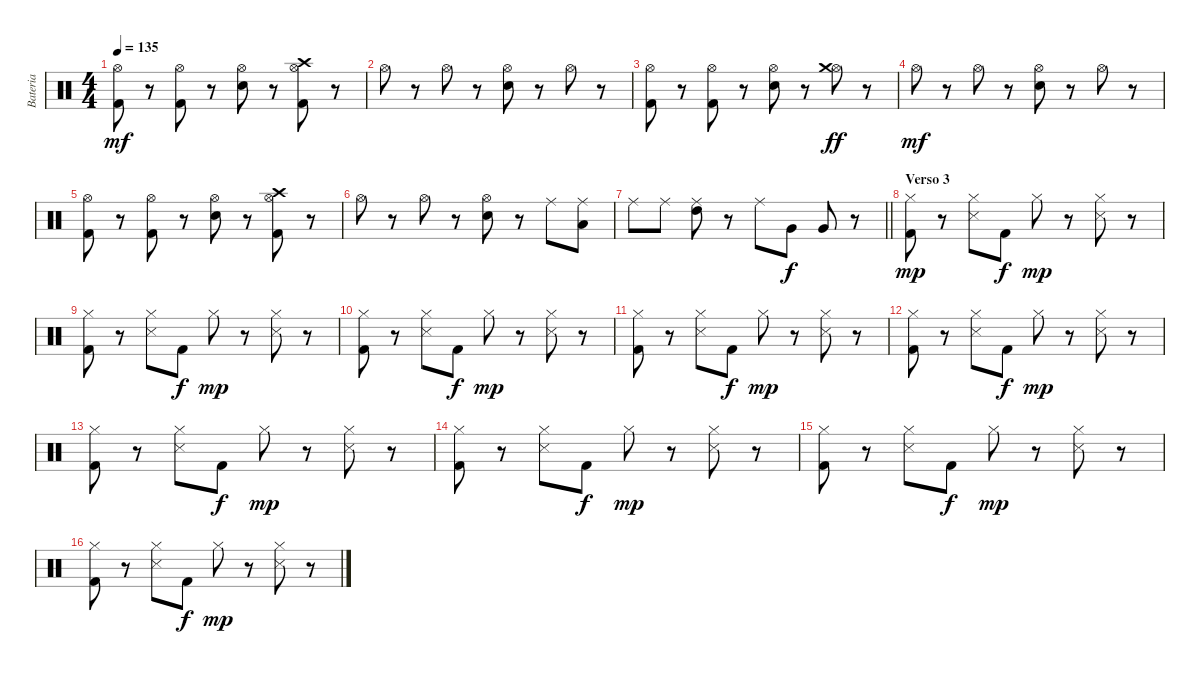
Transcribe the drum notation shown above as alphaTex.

\track ("Bateria" "Bateria") {instrument percussion}
\staff {score}
\articulation defaults
\ts (4 4)
\tempo 135
\clef neutral
\ks c
("Hi-Hat (open)" "Kick (hit) 2").8{dy mf} r.8 ("Hi-Hat (open)" "Kick (hit) 2").8 r.8 ("Hi-Hat (open)" "Electric Snare (hit)").8 r.8 ("Hi-Hat (open)" "Crash high (hit)" "Kick (hit) 2").8 r.8 |
"Hi-Hat (open)".8 r.8 "Hi-Hat (open)".8 r.8 ("Hi-Hat (open)" "Electric Snare (hit)").8 r.8 "Hi-Hat (open)".8 r.8 |
("Hi-Hat (open)" "Kick (hit) 2").8 r.8 ("Hi-Hat (open)" "Kick (hit) 2").8 r.8 ("Hi-Hat (open)" "Electric Snare (hit)").8 r.8 ("Hi-Hat (open)" "Crash medium (hit)").8{dy ff} r.8 |
"Hi-Hat (open)".8{dy mf} r.8 "Hi-Hat (open)".8 r.8 ("Hi-Hat (open)" "Electric Snare (hit)").8 r.8 "Hi-Hat (open)".8 r.8 |
("Hi-Hat (open)" "Kick (hit) 2").8 r.8 ("Hi-Hat (open)" "Kick (hit) 2").8 r.8 ("Hi-Hat (open)" "Electric Snare (hit)").8 r.8 ("Hi-Hat (open)" "Crash high (hit)" "Kick (hit) 2").8 r.8 |
"Hi-Hat (open)".8 r.8 "Hi-Hat (open)".8 r.8 ("Hi-Hat (open)" "Electric Snare (hit)").8 r.8 "Ride (middle)".8 ("Ride (middle)" "Low Tom (hit)").8 |
\barLineRight lightlight "Ride (middle)".8 "Ride (middle)".8
("Ride (middle)" "High Tom (hit)").8 r.8 "Ride (middle)".8 "Very Low Tom (hit)".8{dy f} "Very Low Tom (hit)".8 r.8 |
\section ("" "Verso 3")
("Hi-Hat (closed)" "Kick (hit) 2").8{dy mp} r.8 ("Hi-Hat (closed)" "Snare (side stick) 3").8 "Kick (hit) 2".8{dy f} "Hi-Hat (closed)".8{dy mp} r.8 ("Hi-Hat (closed)" "Snare (side stick) 3").8 r.8 |
("Hi-Hat (closed)" "Kick (hit) 2").8 r.8 ("Hi-Hat (closed)" "Snare (side stick) 3").8 "Kick (hit) 2".8{dy f} "Hi-Hat (closed)".8{dy mp} r.8 ("Hi-Hat (closed)" "Snare (side stick) 3").8 r.8 |
("Hi-Hat (closed)" "Kick (hit) 2").8 r.8 ("Hi-Hat (closed)" "Snare (side stick) 3").8 "Kick (hit) 2".8{dy f} "Hi-Hat (closed)".8{dy mp} r.8 ("Hi-Hat (closed)" "Snare (side stick) 3").8 r.8 |
("Hi-Hat (closed)" "Kick (hit) 2").8 r.8 ("Hi-Hat (closed)" "Snare (side stick) 3").8 "Kick (hit) 2".8{dy f} "Hi-Hat (closed)".8{dy mp} r.8 ("Hi-Hat (closed)" "Snare (side stick) 3").8 r.8 |
("Hi-Hat (closed)" "Kick (hit) 2").8 r.8 ("Hi-Hat (closed)" "Snare (side stick) 3").8 "Kick (hit) 2".8{dy f} "Hi-Hat (closed)".8{dy mp} r.8 ("Hi-Hat (closed)" "Snare (side stick) 3").8 r.8 |
("Hi-Hat (closed)" "Kick (hit) 2").8 r.8 ("Hi-Hat (closed)" "Snare (side stick) 3").8 "Kick (hit) 2".8{dy f} "Hi-Hat (closed)".8{dy mp} r.8 ("Hi-Hat (closed)" "Snare (side stick) 3").8 r.8 |
("Hi-Hat (closed)" "Kick (hit) 2").8 r.8 ("Hi-Hat (closed)" "Snare (side stick) 3").8 "Kick (hit) 2".8{dy f} "Hi-Hat (closed)".8{dy mp} r.8 ("Hi-Hat (closed)" "Snare (side stick) 3").8 r.8 |
("Hi-Hat (closed)" "Kick (hit) 2").8 r.8 ("Hi-Hat (closed)" "Snare (side stick) 3").8 "Kick (hit) 2".8{dy f} "Hi-Hat (closed)".8{dy mp} r.8 ("Hi-Hat (closed)" "Snare (side stick) 3").8 r.8 |
("Hi-Hat (closed)" "Kick (hit) 2").8 r.8 ("Hi-Hat (closed)" "Snare (side stick) 3").8 "Kick (hit) 2".8{dy f} "Hi-Hat (closed)".8{dy mp} r.8 ("Hi-Hat (closed)" "Snare (side stick) 3").8 r.8
